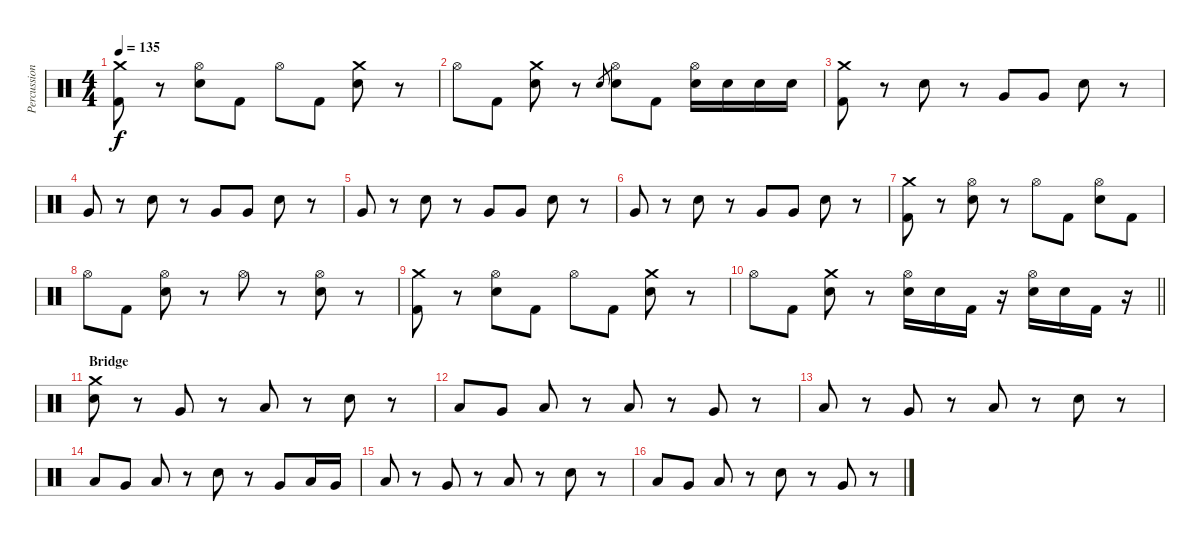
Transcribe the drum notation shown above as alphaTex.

\track ("Percussion" "Percussion") {instrument percussion}
\staff {score}
\articulation defaults
\ts (4 4)
\tempo 135
\clef neutral
\ks c
("Crash medium (hit)" "Kick (hit) 2").8{dy f} r.8 ("Hi-Hat (open)" "Electric Snare (hit)").8 "Kick (hit) 2".8 "Hi-Hat (open)".8 "Kick (hit) 2".8 ("Crash medium (hit)" "Electric Snare (hit)").8 r.8 |
"Hi-Hat (open)".8 "Kick (hit) 2".8 ("Crash medium (hit)" "Electric Snare (hit)").8 r.8 "Electric Snare (hit)".8{gr} ("Hi-Hat (open)" "Electric Snare (hit)").8 "Kick (hit) 2".8 ("Hi-Hat (open)" "Electric Snare (hit)").16 "Electric Snare (hit)".16 "Electric Snare (hit)".16 "Electric Snare (hit)".16 |
("Crash medium (hit)" "Kick (hit) 2").8 r.8 "Electric Snare (hit)".8 r.8 "Very Low Tom (hit)".8 "Very Low Tom (hit)".8 "Electric Snare (hit)".8 r.8 |
"Very Low Tom (hit)".8 r.8 "Electric Snare (hit)".8 r.8 "Very Low Tom (hit)".8 "Very Low Tom (hit)".8 "Electric Snare (hit)".8 r.8 |
"Very Low Tom (hit)".8 r.8 "Electric Snare (hit)".8 r.8 "Very Low Tom (hit)".8 "Very Low Tom (hit)".8 "Electric Snare (hit)".8 r.8 |
"Very Low Tom (hit)".8 r.8 "Electric Snare (hit)".8 r.8 "Very Low Tom (hit)".8 "Very Low Tom (hit)".8 "Electric Snare (hit)".8 r.8 |
("Crash medium (hit)" "Kick (hit) 2").8 r.8 ("Hi-Hat (open)" "Electric Snare (hit)").8 r.8 "Hi-Hat (open)".8 "Kick (hit) 2".8 ("Hi-Hat (open)" "Electric Snare (hit)").8 "Kick (hit) 2".8 |
"Hi-Hat (open)".8 "Kick (hit) 2".8 ("Hi-Hat (open)" "Electric Snare (hit)").8 r.8 "Hi-Hat (open)".8 r.8 ("Hi-Hat (open)" "Electric Snare (hit)").8 r.8 |
("Crash medium (hit)" "Kick (hit) 2").8 r.8 ("Hi-Hat (open)" "Electric Snare (hit)").8 "Kick (hit) 2".8 "Hi-Hat (open)".8 "Kick (hit) 2".8 ("Crash medium (hit)" "Electric Snare (hit)").8 r.8 |
\barLineRight lightlight "Hi-Hat (open)".8 "Kick (hit) 2".8
("Crash medium (hit)" "Electric Snare (hit)").8 r.8 ("Hi-Hat (open)" "Electric Snare (hit)").16 "Electric Snare (hit)".16 "Kick (hit) 2".16 r.16 ("Hi-Hat (open)" "Electric Snare (hit)").16 "Electric Snare (hit)".16 "Kick (hit) 2".16 r.16 |
\section ("" "Bridge")
("Crash medium (hit)" "Electric Snare (hit)").8 r.8 "Very Low Tom (hit)".8 r.8 "Low Tom (hit)".8 r.8 "Electric Snare (hit)".8 r.8 |
"Low Tom (hit)".8 "Very Low Tom (hit)".8 "Low Tom (hit)".8 r.8 "Low Tom (hit)".8 r.8 "Very Low Tom (hit)".8 r.8 |
"Low Tom (hit)".8 r.8 "Very Low Tom (hit)".8 r.8 "Low Tom (hit)".8 r.8 "Electric Snare (hit)".8 r.8 |
"Low Tom (hit)".8 "Very Low Tom (hit)".8 "Low Tom (hit)".8 r.8 "Electric Snare (hit)".8 r.8 "Very Low Tom (hit)".8 "Low Tom (hit)".16 "Very Low Tom (hit)".16 |
"Low Tom (hit)".8 r.8 "Very Low Tom (hit)".8 r.8 "Low Tom (hit)".8 r.8 "Electric Snare (hit)".8 r.8 |
"Low Tom (hit)".8 "Very Low Tom (hit)".8 "Low Tom (hit)".8 r.8 "Electric Snare (hit)".8 r.8 "Very Low Tom (hit)".8 r.8
